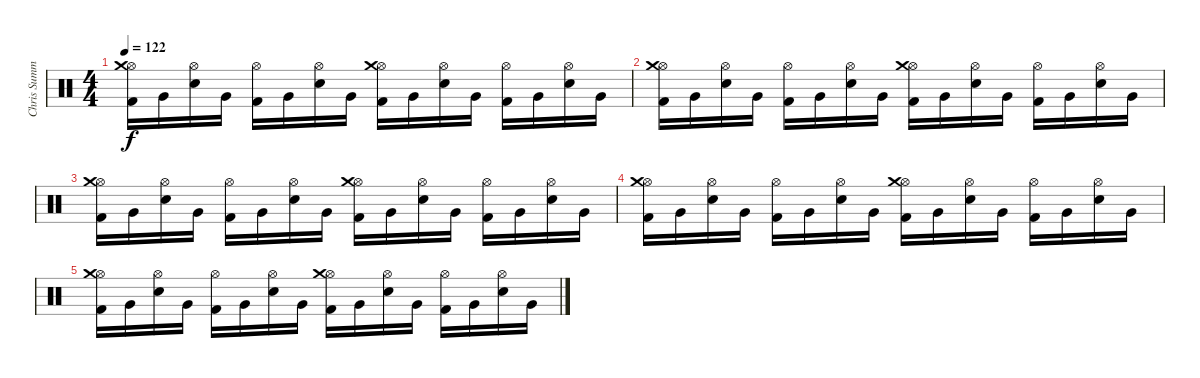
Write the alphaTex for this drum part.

\track ("Chris Summers" "Chris Summ") {instrument percussion}
\staff {score}
\articulation defaults
\ts (4 4)
\tempo 122
\clef neutral
\ks c
("Kick (hit) 2" "Hi-Hat (open)" "Crash medium (hit)").16{dy f} "Very Low Tom (hit)".16 ("Electric Snare (hit)" "Hi-Hat (open)").16 "Very Low Tom (hit)".16 ("Kick (hit) 2" "Hi-Hat (open)").16 "Very Low Tom (hit)".16 ("Electric Snare (hit)" "Hi-Hat (open)").16 "Very Low Tom (hit)".16 ("Kick (hit) 2" "Hi-Hat (open)" "Crash medium (hit)").16 "Very Low Tom (hit)".16 ("Electric Snare (hit)" "Hi-Hat (open)").16 "Very Low Tom (hit)".16 ("Kick (hit) 2" "Hi-Hat (open)").16 "Very Low Tom (hit)".16 ("Electric Snare (hit)" "Hi-Hat (open)").16 "Very Low Tom (hit)".16 |
("Kick (hit) 2" "Hi-Hat (open)" "Crash medium (hit)").16 "Very Low Tom (hit)".16 ("Electric Snare (hit)" "Hi-Hat (open)").16 "Very Low Tom (hit)".16 ("Kick (hit) 2" "Hi-Hat (open)").16 "Very Low Tom (hit)".16 ("Electric Snare (hit)" "Hi-Hat (open)").16 "Very Low Tom (hit)".16 ("Kick (hit) 2" "Hi-Hat (open)" "Crash medium (hit)").16 "Very Low Tom (hit)".16 ("Electric Snare (hit)" "Hi-Hat (open)").16 "Very Low Tom (hit)".16 ("Kick (hit) 2" "Hi-Hat (open)").16 "Very Low Tom (hit)".16 ("Electric Snare (hit)" "Hi-Hat (open)").16 "Very Low Tom (hit)".16 |
("Kick (hit) 2" "Hi-Hat (open)" "Crash medium (hit)").16 "Very Low Tom (hit)".16 ("Electric Snare (hit)" "Hi-Hat (open)").16 "Very Low Tom (hit)".16 ("Kick (hit) 2" "Hi-Hat (open)").16 "Very Low Tom (hit)".16 ("Electric Snare (hit)" "Hi-Hat (open)").16 "Very Low Tom (hit)".16 ("Kick (hit) 2" "Hi-Hat (open)" "Crash medium (hit)").16 "Very Low Tom (hit)".16 ("Electric Snare (hit)" "Hi-Hat (open)").16 "Very Low Tom (hit)".16 ("Kick (hit) 2" "Hi-Hat (open)").16 "Very Low Tom (hit)".16 ("Electric Snare (hit)" "Hi-Hat (open)").16 "Very Low Tom (hit)".16 |
("Kick (hit) 2" "Hi-Hat (open)" "Crash medium (hit)").16 "Very Low Tom (hit)".16 ("Electric Snare (hit)" "Hi-Hat (open)").16 "Very Low Tom (hit)".16 ("Kick (hit) 2" "Hi-Hat (open)").16 "Very Low Tom (hit)".16 ("Electric Snare (hit)" "Hi-Hat (open)").16 "Very Low Tom (hit)".16 ("Kick (hit) 2" "Hi-Hat (open)" "Crash medium (hit)").16 "Very Low Tom (hit)".16 ("Electric Snare (hit)" "Hi-Hat (open)").16 "Very Low Tom (hit)".16 ("Kick (hit) 2" "Hi-Hat (open)").16 "Very Low Tom (hit)".16 ("Electric Snare (hit)" "Hi-Hat (open)").16 "Very Low Tom (hit)".16 |
("Kick (hit) 2" "Hi-Hat (open)" "Crash medium (hit)").16 "Very Low Tom (hit)".16 ("Electric Snare (hit)" "Hi-Hat (open)").16 "Very Low Tom (hit)".16 ("Kick (hit) 2" "Hi-Hat (open)").16 "Very Low Tom (hit)".16 ("Electric Snare (hit)" "Hi-Hat (open)").16 "Very Low Tom (hit)".16 ("Kick (hit) 2" "Hi-Hat (open)" "Crash medium (hit)").16 "Very Low Tom (hit)".16 ("Electric Snare (hit)" "Hi-Hat (open)").16 "Very Low Tom (hit)".16 ("Kick (hit) 2" "Hi-Hat (open)").16 "Very Low Tom (hit)".16 ("Electric Snare (hit)" "Hi-Hat (open)").16 "Very Low Tom (hit)".16
